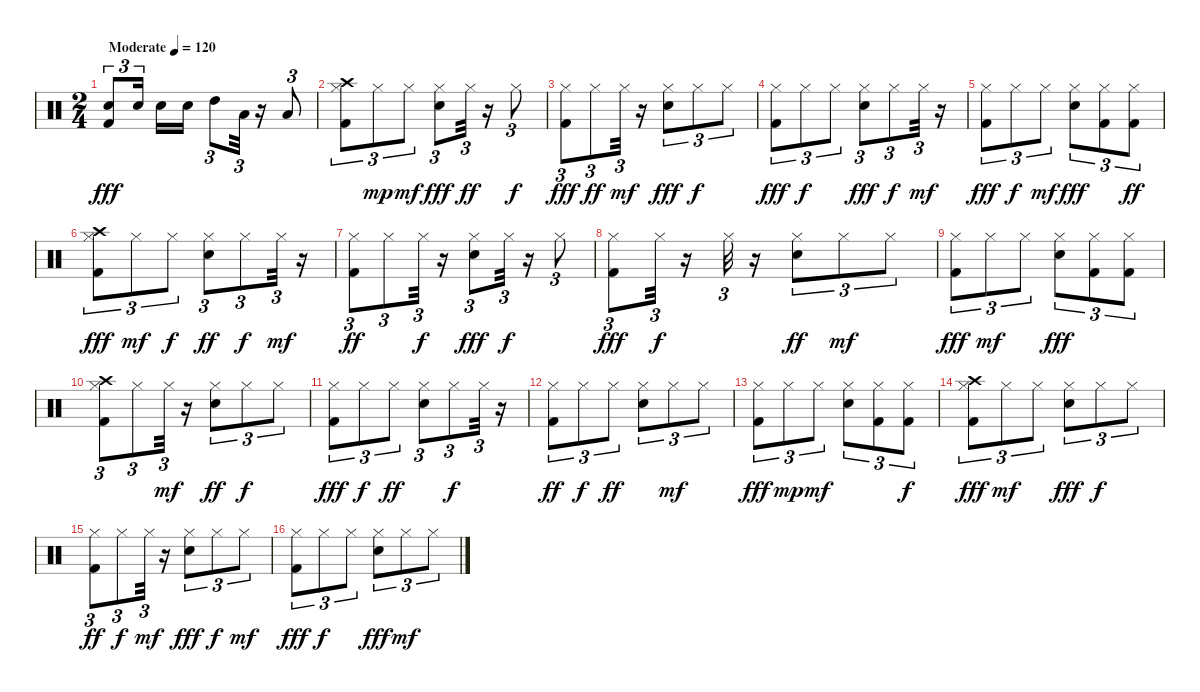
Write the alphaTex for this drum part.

\track "" {instrument percussion}
\staff {score}
\articulation defaults
\ts (2 4)
\tempo (120 "Moderate")
\clef neutral
\ks c
("Snare (hit) 2" "Kick (hit) 2").8{tu (3 2) dy fff} "Snare (hit) 2".16{tu (3 2) beam splitsecondary} "Snare (hit) 2".16 "Snare (hit) 2".16 "High Tom (hit)".8{tu (3 2)} "Low Tom (hit)".32{tu (3 2)} r.16 "Low Floor Tom (hit)".8{tu (3 2)} |
("Crash high (hit)" "Hi-Hat (closed)" "Kick (hit) 2").8{tu (3 2)} "Hi-Hat (closed)".8{tu (3 2) dy mp} "Hi-Hat (closed)".8{tu (3 2) dy mf} ("Snare (hit) 2" "Hi-Hat (closed)").8{tu (3 2) dy fff} "Hi-Hat (closed)".32{tu (3 2) dy ff} r.16 "Hi-Hat (closed)".8{tu (3 2) dy f} |
("Hi-Hat (closed)" "Kick (hit) 2").8{tu (3 2) dy fff} "Hi-Hat (closed)".8{tu (3 2) dy ff} "Hi-Hat (closed)".32{tu (3 2) dy mf} r.16 ("Hi-Hat (closed)" "Snare (hit) 2").8{tu (3 2) dy fff} "Hi-Hat (closed)".8{tu (3 2) dy f} "Hi-Hat (closed)".8{tu (3 2)} |
("Hi-Hat (closed)" "Kick (hit) 2").8{tu (3 2) dy fff} "Hi-Hat (closed)".8{tu (3 2) dy f} "Hi-Hat (closed)".8{tu (3 2)} ("Hi-Hat (closed)" "Snare (hit) 2").8{tu (3 2) dy fff} "Hi-Hat (closed)".8{tu (3 2) dy f} "Hi-Hat (closed)".32{tu (3 2) dy mf} r.16 |
("Hi-Hat (closed)" "Kick (hit) 2").8{tu (3 2) dy fff} "Hi-Hat (closed)".8{tu (3 2) dy f} "Hi-Hat (closed)".8{tu (3 2) dy mf} ("Hi-Hat (closed)" "Snare (hit) 2").8{tu (3 2) dy fff} ("Hi-Hat (closed)" "Kick (hit) 2").8{tu (3 2)} ("Hi-Hat (closed)" "Kick (hit) 2").8{tu (3 2) dy ff} |
("Crash high (hit)" "Kick (hit) 2" "Hi-Hat (closed)").8{tu (3 2) dy fff} "Hi-Hat (closed)".8{tu (3 2) dy mf} "Hi-Hat (closed)".8{tu (3 2) dy f} ("Snare (hit) 2" "Hi-Hat (closed)").8{tu (3 2) dy ff} "Hi-Hat (closed)".8{tu (3 2) dy f} "Hi-Hat (closed)".32{tu (3 2) dy mf} r.16 |
("Kick (hit) 2" "Hi-Hat (closed)").8{tu (3 2) dy ff} "Hi-Hat (closed)".8{tu (3 2)} "Hi-Hat (closed)".32{tu (3 2) dy f} r.16 ("Snare (hit) 2" "Hi-Hat (closed)").8{tu (3 2) dy fff} "Hi-Hat (closed)".32{tu (3 2) dy f} r.16 "Hi-Hat (closed)".8{tu (3 2)} |
("Hi-Hat (closed)" "Kick (hit) 2").8{tu (3 2) dy fff} "Hi-Hat (closed)".32{tu (3 2) dy f} r.16 "Hi-Hat (closed)".32{tu (3 2)} r.16 ("Snare (hit) 2" "Hi-Hat (closed)").8{tu (3 2) dy ff} "Hi-Hat (closed)".8{tu (3 2) dy mf} "Hi-Hat (closed)".8{tu (3 2)} |
("Kick (hit) 2" "Hi-Hat (closed)").8{tu (3 2) dy fff} "Hi-Hat (closed)".8{tu (3 2) dy mf} "Hi-Hat (closed)".8{tu (3 2)} ("Hi-Hat (closed)" "Snare (hit) 2").8{tu (3 2) dy fff} ("Hi-Hat (closed)" "Kick (hit) 2").8{tu (3 2)} ("Hi-Hat (closed)" "Kick (hit) 2").8{tu (3 2)} |
("Crash high (hit)" "Hi-Hat (closed)" "Kick (hit) 2").8{tu (3 2)} "Hi-Hat (closed)".8{tu (3 2)} "Hi-Hat (closed)".32{tu (3 2) dy mf} r.16 ("Snare (hit) 2" "Hi-Hat (closed)").8{tu (3 2) dy ff} "Hi-Hat (closed)".8{tu (3 2) dy f} "Hi-Hat (closed)".8{tu (3 2)} |
("Kick (hit) 2" "Hi-Hat (closed)").8{tu (3 2) dy fff} "Hi-Hat (closed)".8{tu (3 2) dy f} "Hi-Hat (closed)".8{tu (3 2) dy ff} ("Snare (hit) 2" "Hi-Hat (closed)").8{tu (3 2)} "Hi-Hat (closed)".8{tu (3 2) dy f} "Hi-Hat (closed)".32{tu (3 2)} r.16 |
("Kick (hit) 2" "Hi-Hat (closed)").8{tu (3 2) dy ff} "Hi-Hat (closed)".8{tu (3 2) dy f} "Hi-Hat (closed)".8{tu (3 2) dy ff} ("Snare (hit) 2" "Hi-Hat (closed)").8{tu (3 2)} "Hi-Hat (closed)".8{tu (3 2) dy mf} "Hi-Hat (closed)".8{tu (3 2)} |
("Kick (hit) 2" "Hi-Hat (closed)").8{tu (3 2) dy fff} "Hi-Hat (closed)".8{tu (3 2) dy mp} "Hi-Hat (closed)".8{tu (3 2) dy mf} ("Snare (hit) 2" "Hi-Hat (closed)").8{tu (3 2)} ("Kick (hit) 2" "Hi-Hat (closed)").8{tu (3 2)} ("Hi-Hat (closed)" "Kick (hit) 2").8{tu (3 2) dy f} |
("Crash high (hit)" "Kick (hit) 2" "Hi-Hat (closed)").8{tu (3 2) dy fff} "Hi-Hat (closed)".8{tu (3 2) dy mf} "Hi-Hat (closed)".8{tu (3 2)} ("Snare (hit) 2" "Hi-Hat (closed)").8{tu (3 2) dy fff} "Hi-Hat (closed)".8{tu (3 2) dy f} "Hi-Hat (closed)".8{tu (3 2)} |
("Kick (hit) 2" "Hi-Hat (closed)").8{tu (3 2) dy ff} "Hi-Hat (closed)".8{tu (3 2) dy f} "Hi-Hat (closed)".32{tu (3 2) dy mf} r.16 ("Hi-Hat (closed)" "Snare (hit) 2").8{tu (3 2) dy fff} "Hi-Hat (closed)".8{tu (3 2) dy f} "Hi-Hat (closed)".8{tu (3 2) dy mf} |
("Hi-Hat (closed)" "Kick (hit) 2").8{tu (3 2) dy fff} "Hi-Hat (closed)".8{tu (3 2) dy f} "Hi-Hat (closed)".8{tu (3 2)} ("Hi-Hat (closed)" "Snare (hit) 2").8{tu (3 2) dy fff} "Hi-Hat (closed)".8{tu (3 2) dy mf} "Hi-Hat (closed)".8{tu (3 2)}
